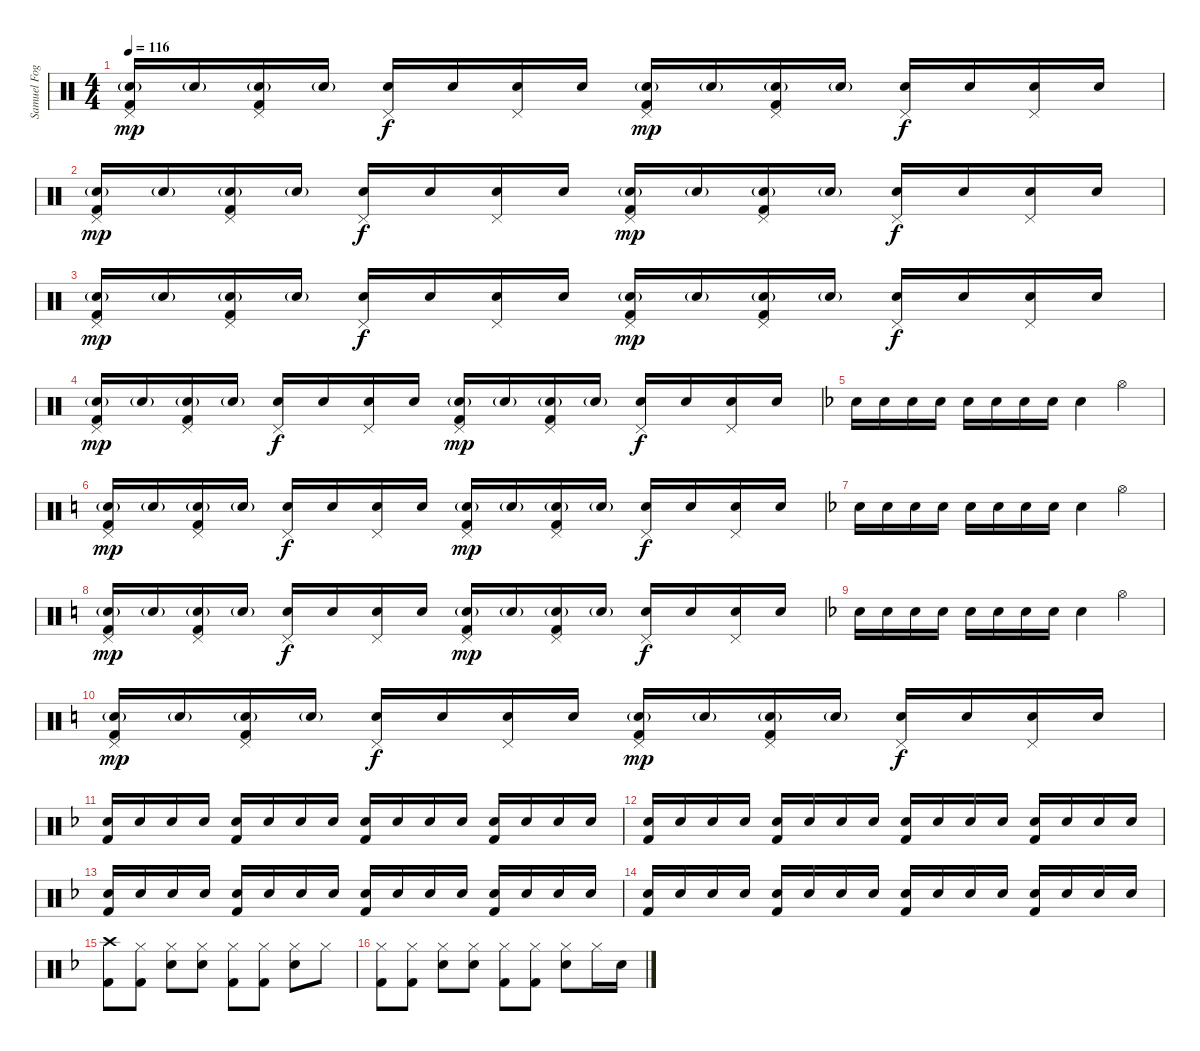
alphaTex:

\track ("Samuel Fogarino" "Samuel Fog") {instrument percussion}
\staff {score}
\articulation defaults
\ts (4 4)
\tempo 116
\clef neutral
\ks c
("Pedal Hi-Hat (hit)" "Snare (hit) 2"{g} "Kick (hit) 2").16{dy mp} "Snare (hit) 2"{g}.16 ("Pedal Hi-Hat (hit)" "Snare (hit) 2"{g} "Kick (hit) 2").16 "Snare (hit) 2"{g}.16 ("Pedal Hi-Hat (hit)" "Snare (hit) 2").16{dy f} "Snare (hit) 2".16 ("Pedal Hi-Hat (hit)" "Snare (hit) 2").16 "Snare (hit) 2".16 ("Pedal Hi-Hat (hit)" "Snare (hit) 2"{g} "Kick (hit) 2").16{dy mp} "Snare (hit) 2"{g}.16 ("Pedal Hi-Hat (hit)" "Snare (hit) 2"{g} "Kick (hit) 2").16 "Snare (hit) 2"{g}.16 ("Pedal Hi-Hat (hit)" "Snare (hit) 2").16{dy f} "Snare (hit) 2".16 ("Pedal Hi-Hat (hit)" "Snare (hit) 2").16 "Snare (hit) 2".16 |
("Pedal Hi-Hat (hit)" "Snare (hit) 2"{g} "Kick (hit) 2").16{dy mp} "Snare (hit) 2"{g}.16 ("Pedal Hi-Hat (hit)" "Snare (hit) 2"{g} "Kick (hit) 2").16 "Snare (hit) 2"{g}.16 ("Pedal Hi-Hat (hit)" "Snare (hit) 2").16{dy f} "Snare (hit) 2".16 ("Pedal Hi-Hat (hit)" "Snare (hit) 2").16 "Snare (hit) 2".16 ("Pedal Hi-Hat (hit)" "Snare (hit) 2"{g} "Kick (hit) 2").16{dy mp} "Snare (hit) 2"{g}.16 ("Pedal Hi-Hat (hit)" "Snare (hit) 2"{g} "Kick (hit) 2").16 "Snare (hit) 2"{g}.16 ("Pedal Hi-Hat (hit)" "Snare (hit) 2").16{dy f} "Snare (hit) 2".16 ("Pedal Hi-Hat (hit)" "Snare (hit) 2").16 "Snare (hit) 2".16 |
("Pedal Hi-Hat (hit)" "Snare (hit) 2"{g} "Kick (hit) 2").16{dy mp} "Snare (hit) 2"{g}.16 ("Pedal Hi-Hat (hit)" "Snare (hit) 2"{g} "Kick (hit) 2").16 "Snare (hit) 2"{g}.16 ("Pedal Hi-Hat (hit)" "Snare (hit) 2").16{dy f} "Snare (hit) 2".16 ("Pedal Hi-Hat (hit)" "Snare (hit) 2").16 "Snare (hit) 2".16 ("Pedal Hi-Hat (hit)" "Snare (hit) 2"{g} "Kick (hit) 2").16{dy mp} "Snare (hit) 2"{g}.16 ("Pedal Hi-Hat (hit)" "Snare (hit) 2"{g} "Kick (hit) 2").16 "Snare (hit) 2"{g}.16 ("Pedal Hi-Hat (hit)" "Snare (hit) 2").16{dy f} "Snare (hit) 2".16 ("Pedal Hi-Hat (hit)" "Snare (hit) 2").16 "Snare (hit) 2".16 |
("Pedal Hi-Hat (hit)" "Snare (hit) 2"{g} "Kick (hit) 2").16{dy mp} "Snare (hit) 2"{g}.16 ("Pedal Hi-Hat (hit)" "Snare (hit) 2"{g} "Kick (hit) 2").16 "Snare (hit) 2"{g}.16 ("Pedal Hi-Hat (hit)" "Snare (hit) 2").16{dy f} "Snare (hit) 2".16 ("Pedal Hi-Hat (hit)" "Snare (hit) 2").16 "Snare (hit) 2".16 ("Pedal Hi-Hat (hit)" "Snare (hit) 2"{g} "Kick (hit) 2").16{dy mp} "Snare (hit) 2"{g}.16 ("Pedal Hi-Hat (hit)" "Snare (hit) 2"{g} "Kick (hit) 2").16 "Snare (hit) 2"{g}.16 ("Pedal Hi-Hat (hit)" "Snare (hit) 2").16{dy f} "Snare (hit) 2".16 ("Pedal Hi-Hat (hit)" "Snare (hit) 2").16 "Snare (hit) 2".16 |
\ks f "Snare (hit) 2".16 "Snare (hit) 2".16 "Snare (hit) 2".16 "Snare (hit) 2".16 "Snare (hit) 2".16 "Snare (hit) 2".16 "Snare (hit) 2".16 "Snare (hit) 2".16 "Snare (hit) 2".4 "Hi-Hat (open)".4
|
\ks c
("Pedal Hi-Hat (hit)" "Snare (hit) 2"{g} "Kick (hit) 2").16{dy mp} "Snare (hit) 2"{g}.16 ("Pedal Hi-Hat (hit)" "Snare (hit) 2"{g} "Kick (hit) 2").16 "Snare (hit) 2"{g}.16 ("Pedal Hi-Hat (hit)" "Snare (hit) 2").16{dy f} "Snare (hit) 2".16 ("Pedal Hi-Hat (hit)" "Snare (hit) 2").16 "Snare (hit) 2".16 ("Pedal Hi-Hat (hit)" "Snare (hit) 2"{g} "Kick (hit) 2").16{dy mp} "Snare (hit) 2"{g}.16 ("Pedal Hi-Hat (hit)" "Snare (hit) 2"{g} "Kick (hit) 2").16 "Snare (hit) 2"{g}.16 ("Pedal Hi-Hat (hit)" "Snare (hit) 2").16{dy f} "Snare (hit) 2".16 ("Pedal Hi-Hat (hit)" "Snare (hit) 2").16 "Snare (hit) 2".16 |
\ks f "Snare (hit) 2".16 "Snare (hit) 2".16 "Snare (hit) 2".16 "Snare (hit) 2".16 "Snare (hit) 2".16 "Snare (hit) 2".16 "Snare (hit) 2".16 "Snare (hit) 2".16 "Snare (hit) 2".4 "Hi-Hat (open)".4
|
\ks c
("Pedal Hi-Hat (hit)" "Snare (hit) 2"{g} "Kick (hit) 2").16{dy mp} "Snare (hit) 2"{g}.16 ("Pedal Hi-Hat (hit)" "Snare (hit) 2"{g} "Kick (hit) 2").16 "Snare (hit) 2"{g}.16 ("Pedal Hi-Hat (hit)" "Snare (hit) 2").16{dy f} "Snare (hit) 2".16 ("Pedal Hi-Hat (hit)" "Snare (hit) 2").16 "Snare (hit) 2".16 ("Pedal Hi-Hat (hit)" "Snare (hit) 2"{g} "Kick (hit) 2").16{dy mp} "Snare (hit) 2"{g}.16 ("Pedal Hi-Hat (hit)" "Snare (hit) 2"{g} "Kick (hit) 2").16 "Snare (hit) 2"{g}.16 ("Pedal Hi-Hat (hit)" "Snare (hit) 2").16{dy f} "Snare (hit) 2".16 ("Pedal Hi-Hat (hit)" "Snare (hit) 2").16 "Snare (hit) 2".16 |
\ks f "Snare (hit) 2".16 "Snare (hit) 2".16 "Snare (hit) 2".16 "Snare (hit) 2".16 "Snare (hit) 2".16 "Snare (hit) 2".16 "Snare (hit) 2".16 "Snare (hit) 2".16 "Snare (hit) 2".4 "Hi-Hat (open)".4
|
\ks c
("Pedal Hi-Hat (hit)" "Snare (hit) 2"{g} "Kick (hit) 2").16{dy mp} "Snare (hit) 2"{g}.16 ("Pedal Hi-Hat (hit)" "Snare (hit) 2"{g} "Kick (hit) 2").16 "Snare (hit) 2"{g}.16 ("Pedal Hi-Hat (hit)" "Snare (hit) 2").16{dy f} "Snare (hit) 2".16 ("Pedal Hi-Hat (hit)" "Snare (hit) 2").16 "Snare (hit) 2".16 ("Pedal Hi-Hat (hit)" "Snare (hit) 2"{g} "Kick (hit) 2").16{dy mp} "Snare (hit) 2"{g}.16 ("Pedal Hi-Hat (hit)" "Snare (hit) 2"{g} "Kick (hit) 2").16 "Snare (hit) 2"{g}.16 ("Pedal Hi-Hat (hit)" "Snare (hit) 2").16{dy f} "Snare (hit) 2".16 ("Pedal Hi-Hat (hit)" "Snare (hit) 2").16 "Snare (hit) 2".16 |
\ks f
("Kick (hit) 2" "Snare (hit) 2").16{volume 6} "Snare (hit) 2".16 "Snare (hit) 2".16 "Snare (hit) 2".16 ("Kick (hit) 2" "Snare (hit) 2").16 "Snare (hit) 2".16 "Snare (hit) 2".16 "Snare (hit) 2".16 ("Kick (hit) 2" "Snare (hit) 2").16 "Snare (hit) 2".16 "Snare (hit) 2".16 "Snare (hit) 2".16 ("Kick (hit) 2" "Snare (hit) 2").16 "Snare (hit) 2".16 "Snare (hit) 2".16 "Snare (hit) 2".16 |
("Kick (hit) 2" "Snare (hit) 2").16 "Snare (hit) 2".16 "Snare (hit) 2".16 "Snare (hit) 2".16 ("Kick (hit) 2" "Snare (hit) 2").16 "Snare (hit) 2".16 "Snare (hit) 2".16 "Snare (hit) 2".16 ("Kick (hit) 2" "Snare (hit) 2").16 "Snare (hit) 2".16 "Snare (hit) 2".16 "Snare (hit) 2".16 ("Kick (hit) 2" "Snare (hit) 2").16 "Snare (hit) 2".16 "Snare (hit) 2".16 "Snare (hit) 2".16 |
("Kick (hit) 2" "Snare (hit) 2").16{volume 9} "Snare (hit) 2".16 "Snare (hit) 2".16 "Snare (hit) 2".16 ("Kick (hit) 2" "Snare (hit) 2").16 "Snare (hit) 2".16 "Snare (hit) 2".16 "Snare (hit) 2".16 ("Kick (hit) 2" "Snare (hit) 2").16 "Snare (hit) 2".16 "Snare (hit) 2".16 "Snare (hit) 2".16 ("Kick (hit) 2" "Snare (hit) 2").16 "Snare (hit) 2".16 "Snare (hit) 2".16 "Snare (hit) 2".16 |
("Kick (hit) 2" "Snare (hit) 2").16{volume 13} "Snare (hit) 2".16 "Snare (hit) 2".16 "Snare (hit) 2".16 ("Kick (hit) 2" "Snare (hit) 2").16 "Snare (hit) 2".16 "Snare (hit) 2".16 "Snare (hit) 2".16 ("Kick (hit) 2" "Snare (hit) 2").16 "Snare (hit) 2".16 "Snare (hit) 2".16 "Snare (hit) 2".16 ("Kick (hit) 2" "Snare (hit) 2").16 "Snare (hit) 2".16 "Snare (hit) 2".16 "Snare (hit) 2".16 |
("Crash high (hit)" "Kick (hit) 2").8 ("Hi-Hat (closed)" "Kick (hit) 2").8 ("Hi-Hat (closed)" "Snare (hit) 2").8 ("Hi-Hat (closed)" "Snare (hit) 2").8 ("Hi-Hat (closed)" "Kick (hit) 2").8 ("Hi-Hat (closed)" "Kick (hit) 2").8 ("Hi-Hat (closed)" "Snare (hit) 2").8 "Hi-Hat (closed)".8 |
("Hi-Hat (closed)" "Kick (hit) 2").8 ("Hi-Hat (closed)" "Kick (hit) 2").8 ("Hi-Hat (closed)" "Snare (hit) 2").8 ("Hi-Hat (closed)" "Snare (hit) 2").8 ("Hi-Hat (closed)" "Kick (hit) 2").8 ("Hi-Hat (closed)" "Kick (hit) 2").8 ("Hi-Hat (closed)" "Snare (hit) 2").8 "Hi-Hat (closed)".16 "Snare (hit) 2".16
